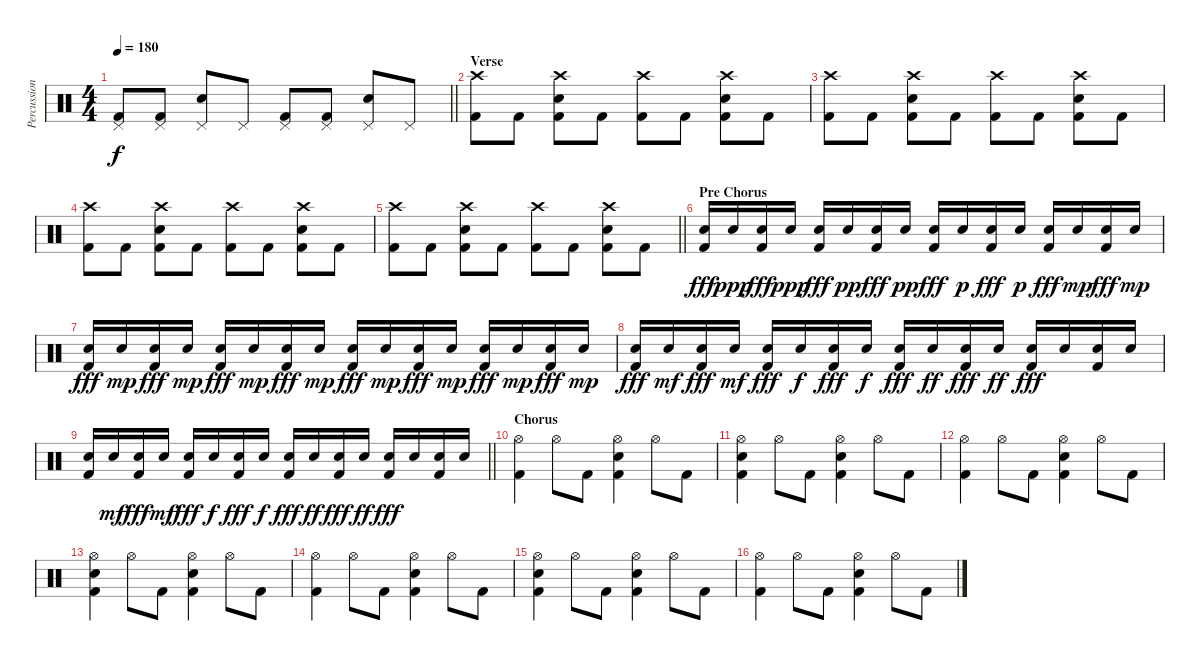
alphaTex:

\track ("Percussion" "Percussion") {instrument percussion}
\staff {score}
\articulation defaults
\ts (4 4)
\tempo 180
\clef neutral
\barLineRight lightlight
\ks c
("Pedal Hi-Hat (hit)" "Kick (hit) 2").8{dy f} ("Pedal Hi-Hat (hit)" "Kick (hit) 2").8 ("Pedal Hi-Hat (hit)" "Electric Snare (hit)").8 "Pedal Hi-Hat (hit)".8 ("Pedal Hi-Hat (hit)" "Kick (hit) 2").8 ("Pedal Hi-Hat (hit)" "Kick (hit) 2").8 ("Pedal Hi-Hat (hit)" "Electric Snare (hit)").8 "Pedal Hi-Hat (hit)".8 |
\section ("" "Verse")
("Crash high (hit)" "Kick (hit) 2").8 "Kick (hit) 2".8 ("Crash high (hit)" "Electric Snare (hit)" "Kick (hit) 2").8 "Kick (hit) 2".8 ("Crash high (hit)" "Kick (hit) 2").8 "Kick (hit) 2".8 ("Crash high (hit)" "Electric Snare (hit)" "Kick (hit) 2").8 "Kick (hit) 2".8 |
("Crash high (hit)" "Kick (hit) 2").8 "Kick (hit) 2".8 ("Crash high (hit)" "Electric Snare (hit)" "Kick (hit) 2").8 "Kick (hit) 2".8 ("Crash high (hit)" "Kick (hit) 2").8 "Kick (hit) 2".8 ("Crash high (hit)" "Electric Snare (hit)" "Kick (hit) 2").8 "Kick (hit) 2".8 |
("Crash high (hit)" "Kick (hit) 2").8 "Kick (hit) 2".8 ("Crash high (hit)" "Electric Snare (hit)" "Kick (hit) 2").8 "Kick (hit) 2".8 ("Crash high (hit)" "Kick (hit) 2").8 "Kick (hit) 2".8 ("Crash high (hit)" "Electric Snare (hit)" "Kick (hit) 2").8 "Kick (hit) 2".8 |
\barLineRight lightlight
("Crash high (hit)" "Kick (hit) 2").8 "Kick (hit) 2".8 ("Crash high (hit)" "Electric Snare (hit)" "Kick (hit) 2").8 "Kick (hit) 2".8 ("Crash high (hit)" "Kick (hit) 2").8 "Kick (hit) 2".8 ("Crash high (hit)" "Electric Snare (hit)" "Kick (hit) 2").8 "Kick (hit) 2".8 |
\section ("" "Pre Chorus")
("Electric Snare (hit)" "Kick (hit) 2").16{dy fff} "Electric Snare (hit)".16{dy ppp} ("Electric Snare (hit)" "Kick (hit) 2").16{dy fff} "Electric Snare (hit)".16{dy ppp} ("Electric Snare (hit)" "Kick (hit) 2").16{dy fff} "Electric Snare (hit)".16{dy pp} ("Electric Snare (hit)" "Kick (hit) 2").16{dy fff} "Electric Snare (hit)".16{dy pp} ("Electric Snare (hit)" "Kick (hit) 2").16{dy fff} "Electric Snare (hit)".16{dy p} ("Electric Snare (hit)" "Kick (hit) 2").16{dy fff} "Electric Snare (hit)".16{dy p} ("Electric Snare (hit)" "Kick (hit) 2").16{dy fff} "Electric Snare (hit)".16{dy mp} ("Electric Snare (hit)" "Kick (hit) 2").16{dy fff} "Electric Snare (hit)".16{dy mp} |
("Electric Snare (hit)" "Kick (hit) 2").16{dy fff} "Electric Snare (hit)".16{dy mp} ("Electric Snare (hit)" "Kick (hit) 2").16{dy fff} "Electric Snare (hit)".16{dy mp} ("Electric Snare (hit)" "Kick (hit) 2").16{dy fff} "Electric Snare (hit)".16{dy mp} ("Electric Snare (hit)" "Kick (hit) 2").16{dy fff} "Electric Snare (hit)".16{dy mp} ("Electric Snare (hit)" "Kick (hit) 2").16{dy fff} "Electric Snare (hit)".16{dy mp} ("Electric Snare (hit)" "Kick (hit) 2").16{dy fff} "Electric Snare (hit)".16{dy mp} ("Electric Snare (hit)" "Kick (hit) 2").16{dy fff} "Electric Snare (hit)".16{dy mp} ("Electric Snare (hit)" "Kick (hit) 2").16{dy fff} "Electric Snare (hit)".16{dy mp} |
("Electric Snare (hit)" "Kick (hit) 2").16{dy fff} "Electric Snare (hit)".16{dy mf} ("Electric Snare (hit)" "Kick (hit) 2").16{dy fff} "Electric Snare (hit)".16{dy mf} ("Electric Snare (hit)" "Kick (hit) 2").16{dy fff} "Electric Snare (hit)".16{dy f} ("Electric Snare (hit)" "Kick (hit) 2").16{dy fff} "Electric Snare (hit)".16{dy f} ("Electric Snare (hit)" "Kick (hit) 2").16{dy fff} "Electric Snare (hit)".16{dy ff} ("Electric Snare (hit)" "Kick (hit) 2").16{dy fff} "Electric Snare (hit)".16{dy ff} ("Electric Snare (hit)" "Kick (hit) 2").16{dy fff} "Electric Snare (hit)".16 ("Electric Snare (hit)" "Kick (hit) 2").16 "Electric Snare (hit)".16 |
\barLineRight lightlight
("Electric Snare (hit)" "Kick (hit) 2").16 "Electric Snare (hit)".16{dy mf} ("Electric Snare (hit)" "Kick (hit) 2").16{dy fff} "Electric Snare (hit)".16{dy mf} ("Electric Snare (hit)" "Kick (hit) 2").16{dy fff} "Electric Snare (hit)".16{dy f} ("Electric Snare (hit)" "Kick (hit) 2").16{dy fff} "Electric Snare (hit)".16{dy f} ("Electric Snare (hit)" "Kick (hit) 2").16{dy fff} "Electric Snare (hit)".16{dy ff} ("Electric Snare (hit)" "Kick (hit) 2").16{dy fff} "Electric Snare (hit)".16{dy ff} ("Electric Snare (hit)" "Kick (hit) 2").16{dy fff} "Electric Snare (hit)".16 ("Electric Snare (hit)" "Kick (hit) 2").16 "Electric Snare (hit)".16 |
\section ("" "Chorus")
("Hi-Hat (open)" "Kick (hit) 2").4 "Hi-Hat (open)".8 "Kick (hit) 2".8 ("Hi-Hat (open)" "Electric Snare (hit)" "Kick (hit) 2").4 "Hi-Hat (open)".8 "Kick (hit) 2".8 |
("Hi-Hat (open)" "Electric Snare (hit)" "Kick (hit) 2").4 "Hi-Hat (open)".8 "Kick (hit) 2".8 ("Hi-Hat (open)" "Electric Snare (hit)" "Kick (hit) 2").4 "Hi-Hat (open)".8 "Kick (hit) 2".8 |
("Hi-Hat (open)" "Kick (hit) 2").4 "Hi-Hat (open)".8 "Kick (hit) 2".8 ("Hi-Hat (open)" "Electric Snare (hit)" "Kick (hit) 2").4 "Hi-Hat (open)".8 "Kick (hit) 2".8 |
("Hi-Hat (open)" "Electric Snare (hit)" "Kick (hit) 2").4 "Hi-Hat (open)".8 "Kick (hit) 2".8 ("Hi-Hat (open)" "Electric Snare (hit)" "Kick (hit) 2").4 "Hi-Hat (open)".8 "Kick (hit) 2".8 |
("Hi-Hat (open)" "Kick (hit) 2").4 "Hi-Hat (open)".8 "Kick (hit) 2".8 ("Hi-Hat (open)" "Electric Snare (hit)" "Kick (hit) 2").4 "Hi-Hat (open)".8 "Kick (hit) 2".8 |
("Hi-Hat (open)" "Electric Snare (hit)" "Kick (hit) 2").4 "Hi-Hat (open)".8 "Kick (hit) 2".8 ("Hi-Hat (open)" "Electric Snare (hit)" "Kick (hit) 2").4 "Hi-Hat (open)".8 "Kick (hit) 2".8 |
("Hi-Hat (open)" "Kick (hit) 2").4 "Hi-Hat (open)".8 "Kick (hit) 2".8 ("Hi-Hat (open)" "Electric Snare (hit)" "Kick (hit) 2").4 "Hi-Hat (open)".8 "Kick (hit) 2".8
